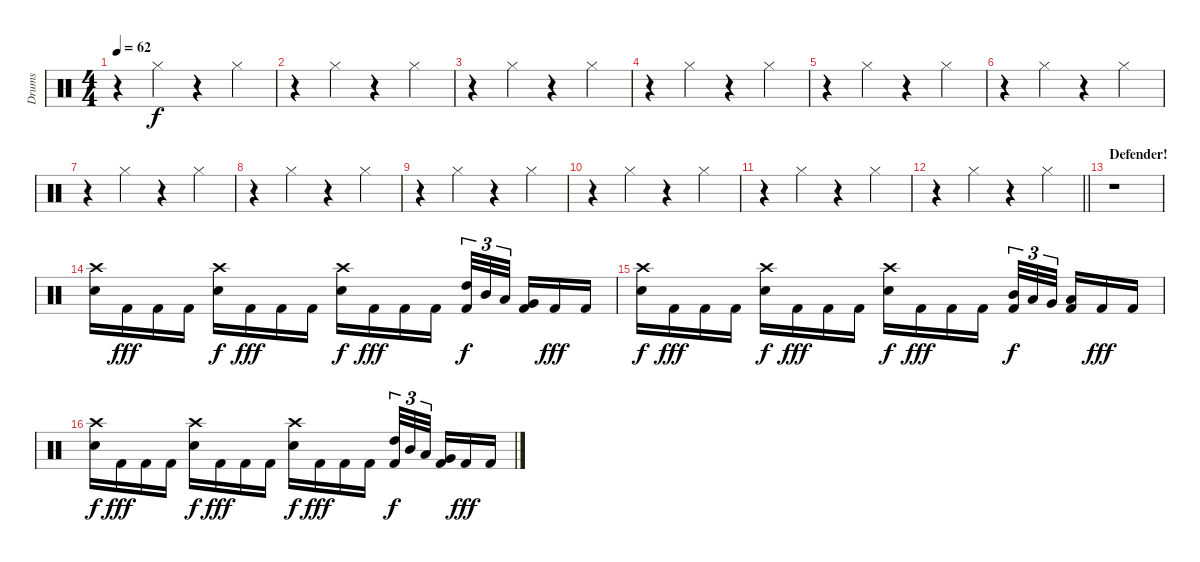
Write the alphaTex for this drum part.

\track ("Drums" "Drums") {instrument percussion}
\staff {score}
\articulation defaults
\ts (4 4)
\tempo 62
\clef neutral
\ks c
r.4{dy f} "Hi-Hat (closed)".4 r.4 "Hi-Hat (closed)".4 |
r.4 "Hi-Hat (closed)".4 r.4 "Hi-Hat (closed)".4 |
r.4 "Hi-Hat (closed)".4 r.4 "Hi-Hat (closed)".4 |
r.4 "Hi-Hat (closed)".4 r.4 "Hi-Hat (closed)".4 |
r.4 "Hi-Hat (closed)".4 r.4 "Hi-Hat (closed)".4 |
r.4 "Hi-Hat (closed)".4 r.4 "Hi-Hat (closed)".4 |
r.4 "Hi-Hat (closed)".4 r.4 "Hi-Hat (closed)".4 |
r.4 "Hi-Hat (closed)".4 r.4 "Hi-Hat (closed)".4 |
r.4 "Hi-Hat (closed)".4 r.4 "Hi-Hat (closed)".4 |
r.4 "Hi-Hat (closed)".4 r.4 "Hi-Hat (closed)".4 |
r.4 "Hi-Hat (closed)".4 r.4 "Hi-Hat (closed)".4 |
\barLineRight lightlight
r.4 "Hi-Hat (closed)".4 r.4 "Hi-Hat (closed)".4 |
\section ("" "Defender!")
r.1 |
("Crash high (hit)" "Snare (hit) 2").16 "Kick (hit) 2".16{dy fff} "Kick (hit) 2".16 "Kick (hit) 2".16 ("Crash high (hit)" "Snare (hit) 2").16{dy f} "Kick (hit) 2".16{dy fff} "Kick (hit) 2".16 "Kick (hit) 2".16 ("Crash high (hit)" "Snare (hit) 2").16{dy f} "Kick (hit) 2".16{dy fff} "Kick (hit) 2".16 "Kick (hit) 2".16 ("High Tom (hit)" "Kick (hit) 2").32{tu (3 2) dy f} "Mid Tom (hit)".32{tu (3 2)} "Low Tom (hit)".32{tu (3 2) beam splitsecondary} ("Very Low Tom (hit)" "Kick (hit) 2").16 "Kick (hit) 2".16{dy fff} "Kick (hit) 2".16 |
("Crash high (hit)" "Snare (hit) 2").16{dy f} "Kick (hit) 2".16{dy fff} "Kick (hit) 2".16 "Kick (hit) 2".16 ("Crash high (hit)" "Snare (hit) 2").16{dy f} "Kick (hit) 2".16{dy fff} "Kick (hit) 2".16 "Kick (hit) 2".16 ("Crash high (hit)" "Snare (hit) 2").16{dy f} "Kick (hit) 2".16{dy fff} "Kick (hit) 2".16 "Kick (hit) 2".16 ("Mid Tom (hit)" "Kick (hit) 2").32{tu (3 2) dy f} "Low Tom (hit)".32{tu (3 2)} "Very Low Tom (hit)".32{tu (3 2) beam splitsecondary} ("Low Floor Tom (hit)" "Kick (hit) 2").16 "Kick (hit) 2".16{dy fff} "Kick (hit) 2".16 |
("Crash high (hit)" "Snare (hit) 2").16{dy f} "Kick (hit) 2".16{dy fff} "Kick (hit) 2".16 "Kick (hit) 2".16 ("Crash high (hit)" "Snare (hit) 2").16{dy f} "Kick (hit) 2".16{dy fff} "Kick (hit) 2".16 "Kick (hit) 2".16 ("Crash high (hit)" "Snare (hit) 2").16{dy f} "Kick (hit) 2".16{dy fff} "Kick (hit) 2".16 "Kick (hit) 2".16 ("High Tom (hit)" "Kick (hit) 2").32{tu (3 2) dy f} "Mid Tom (hit)".32{tu (3 2)} "Low Tom (hit)".32{tu (3 2) beam splitsecondary} ("Very Low Tom (hit)" "Kick (hit) 2").16 "Kick (hit) 2".16{dy fff} "Kick (hit) 2".16
